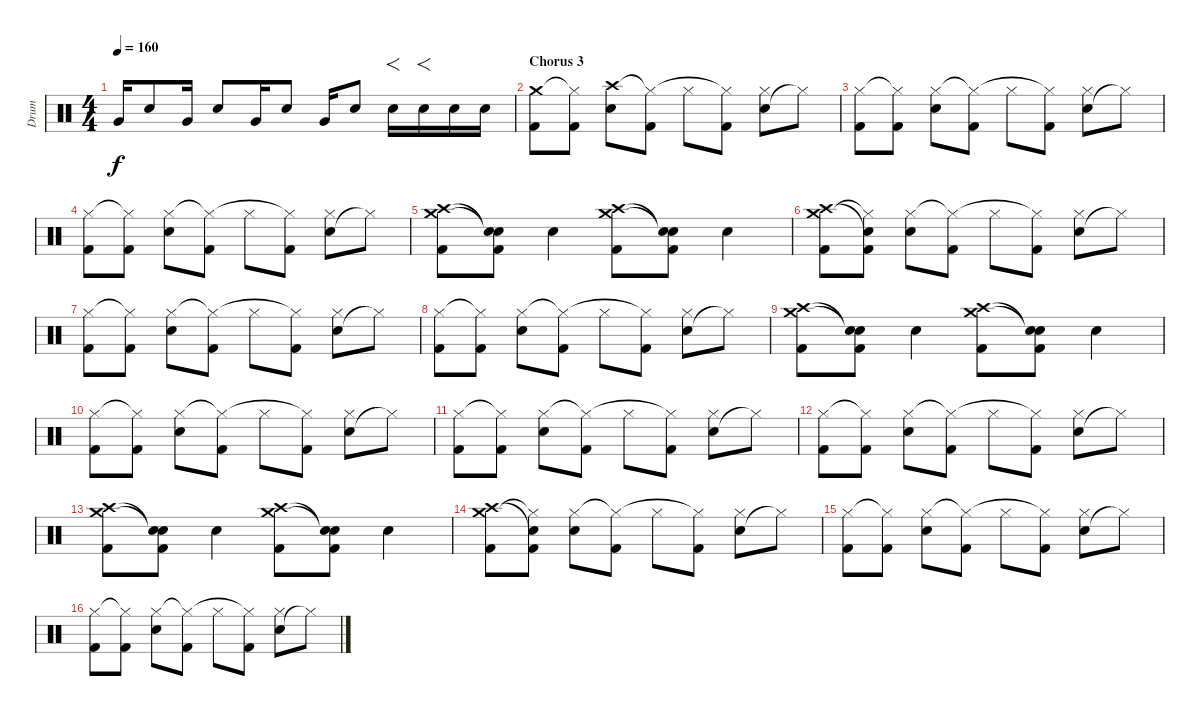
\track ("Drum" "Drum") {instrument percussion}
\staff {score}
\articulation defaults
\ts (4 4)
\tempo 160
\clef neutral
\ks c "Very Low Tom (hit)".16{dy f} "Electric Snare (hit)".8 "Very Low Tom (hit)".16 "Electric Snare (hit)".8 "Very Low Tom (hit)".16 "Electric Snare (hit)".8 "Very Low Tom (hit)".16 "Electric Snare (hit)".8 "Electric Snare (hit)".16{f} "Electric Snare (hit)".16{f} "Electric Snare (hit)".16 "Electric Snare (hit)".16
|
\section ("" "Chorus 3")
("Kick (hit) 2" "Crash medium (hit)").8 ("Kick (hit) 2" "Hi-Hat (closed)"{t}).8 ("Electric Snare (hit)" "Crash high (hit)").8 ("Kick (hit) 2" "Hi-Hat (closed)"{t}).8 "Hi-Hat (closed)".8 ("Kick (hit) 2" "Hi-Hat (closed)"{t}).8 ("Electric Snare (hit)" "Hi-Hat (closed)").8 "Hi-Hat (closed)"{t}.8 |
("Kick (hit) 2" "Hi-Hat (closed)").8 ("Kick (hit) 2" "Hi-Hat (closed)"{t}).8 ("Electric Snare (hit)" "Hi-Hat (closed)").8 ("Kick (hit) 2" "Hi-Hat (closed)"{t}).8 "Hi-Hat (closed)".8 ("Kick (hit) 2" "Hi-Hat (closed)"{t}).8 ("Electric Snare (hit)" "Hi-Hat (closed)").8 "Hi-Hat (closed)"{t}.8 |
("Kick (hit) 2" "Hi-Hat (closed)").8 ("Kick (hit) 2" "Hi-Hat (closed)"{t}).8 ("Electric Snare (hit)" "Hi-Hat (closed)").8 ("Kick (hit) 2" "Hi-Hat (closed)"{t}).8 "Hi-Hat (closed)".8 ("Kick (hit) 2" "Hi-Hat (closed)"{t}).8 ("Electric Snare (hit)" "Hi-Hat (closed)").8 "Hi-Hat (closed)"{t}.8 |
("Kick (hit) 2" "Crash high (hit)" "Crash medium (hit)").8 ("Kick (hit) 2" "Electric Snare (hit)"{t} "Snare (hit)"{t}).8 "Electric Snare (hit)".4 ("Kick (hit) 2" "Crash high (hit)" "Crash medium (hit)").8 ("Kick (hit) 2" "Snare (hit)"{t} "Snare (hit)"{t}).8 "Electric Snare (hit)".4 |
("Kick (hit) 2" "Crash high (hit)" "Crash medium (hit)").8 ("Kick (hit) 2" "Snare (hit)"{t} "Hi-Hat (closed)"{t}).8 ("Electric Snare (hit)" "Hi-Hat (closed)").8 ("Kick (hit) 2" "Hi-Hat (closed)"{t}).8 "Hi-Hat (closed)".8 ("Kick (hit) 2" "Hi-Hat (closed)"{t}).8 ("Electric Snare (hit)" "Hi-Hat (closed)").8 "Hi-Hat (closed)"{t}.8 |
("Kick (hit) 2" "Hi-Hat (closed)").8 ("Kick (hit) 2" "Hi-Hat (closed)"{t}).8 ("Electric Snare (hit)" "Hi-Hat (closed)").8 ("Kick (hit) 2" "Hi-Hat (closed)"{t}).8 "Hi-Hat (closed)".8 ("Kick (hit) 2" "Hi-Hat (closed)"{t}).8 ("Electric Snare (hit)" "Hi-Hat (closed)").8 "Hi-Hat (closed)"{t}.8 |
("Kick (hit) 2" "Hi-Hat (closed)").8 ("Kick (hit) 2" "Hi-Hat (closed)"{t}).8 ("Electric Snare (hit)" "Hi-Hat (closed)").8 ("Kick (hit) 2" "Hi-Hat (closed)"{t}).8 "Hi-Hat (closed)".8 ("Kick (hit) 2" "Hi-Hat (closed)"{t}).8 ("Electric Snare (hit)" "Hi-Hat (closed)").8 "Hi-Hat (closed)"{t}.8 |
("Kick (hit) 2" "Crash high (hit)" "Crash medium (hit)").8 ("Kick (hit) 2" "Electric Snare (hit)"{t} "Snare (hit)"{t}).8 "Electric Snare (hit)".4 ("Kick (hit) 2" "Crash high (hit)" "Crash medium (hit)").8 ("Kick (hit) 2" "Snare (hit)"{t} "Snare (hit)"{t}).8 "Electric Snare (hit)".4 |
\section ("" "")
("Kick (hit) 2" "Hi-Hat (closed)").8 ("Kick (hit) 2" "Hi-Hat (closed)"{t}).8 ("Electric Snare (hit)" "Hi-Hat (closed)").8 ("Kick (hit) 2" "Hi-Hat (closed)"{t}).8 "Hi-Hat (closed)".8 ("Kick (hit) 2" "Hi-Hat (closed)"{t}).8 ("Electric Snare (hit)" "Hi-Hat (closed)").8 "Hi-Hat (closed)"{t}.8 |
("Kick (hit) 2" "Hi-Hat (closed)").8 ("Kick (hit) 2" "Hi-Hat (closed)"{t}).8 ("Electric Snare (hit)" "Hi-Hat (closed)").8 ("Kick (hit) 2" "Hi-Hat (closed)"{t}).8 "Hi-Hat (closed)".8 ("Kick (hit) 2" "Hi-Hat (closed)"{t}).8 ("Electric Snare (hit)" "Hi-Hat (closed)").8 "Hi-Hat (closed)"{t}.8 |
("Kick (hit) 2" "Hi-Hat (closed)").8 ("Kick (hit) 2" "Hi-Hat (closed)"{t}).8 ("Electric Snare (hit)" "Hi-Hat (closed)").8 ("Kick (hit) 2" "Hi-Hat (closed)"{t}).8 "Hi-Hat (closed)".8 ("Kick (hit) 2" "Hi-Hat (closed)"{t}).8 ("Electric Snare (hit)" "Hi-Hat (closed)").8 "Hi-Hat (closed)"{t}.8 |
("Kick (hit) 2" "Crash high (hit)" "Crash medium (hit)").8 ("Kick (hit) 2" "Electric Snare (hit)"{t} "Snare (hit)"{t}).8 "Electric Snare (hit)".4 ("Kick (hit) 2" "Crash high (hit)" "Crash medium (hit)").8 ("Kick (hit) 2" "Snare (hit)"{t} "Snare (hit)"{t}).8 "Electric Snare (hit)".4 |
("Kick (hit) 2" "Crash high (hit)" "Crash medium (hit)").8 ("Kick (hit) 2" "Snare (hit)"{t} "Hi-Hat (closed)"{t}).8 ("Electric Snare (hit)" "Hi-Hat (closed)").8 ("Kick (hit) 2" "Hi-Hat (closed)"{t}).8 "Hi-Hat (closed)".8 ("Kick (hit) 2" "Hi-Hat (closed)"{t}).8 ("Electric Snare (hit)" "Hi-Hat (closed)").8 "Hi-Hat (closed)"{t}.8 |
("Kick (hit) 2" "Hi-Hat (closed)").8 ("Kick (hit) 2" "Hi-Hat (closed)"{t}).8 ("Electric Snare (hit)" "Hi-Hat (closed)").8 ("Kick (hit) 2" "Hi-Hat (closed)"{t}).8 "Hi-Hat (closed)".8 ("Kick (hit) 2" "Hi-Hat (closed)"{t}).8 ("Electric Snare (hit)" "Hi-Hat (closed)").8 "Hi-Hat (closed)"{t}.8 |
("Kick (hit) 2" "Hi-Hat (closed)").8 ("Kick (hit) 2" "Hi-Hat (closed)"{t}).8 ("Electric Snare (hit)" "Hi-Hat (closed)").8 ("Kick (hit) 2" "Hi-Hat (closed)"{t}).8 "Hi-Hat (closed)".8 ("Kick (hit) 2" "Hi-Hat (closed)"{t}).8 ("Electric Snare (hit)" "Hi-Hat (closed)").8 "Hi-Hat (closed)"{t}.8
